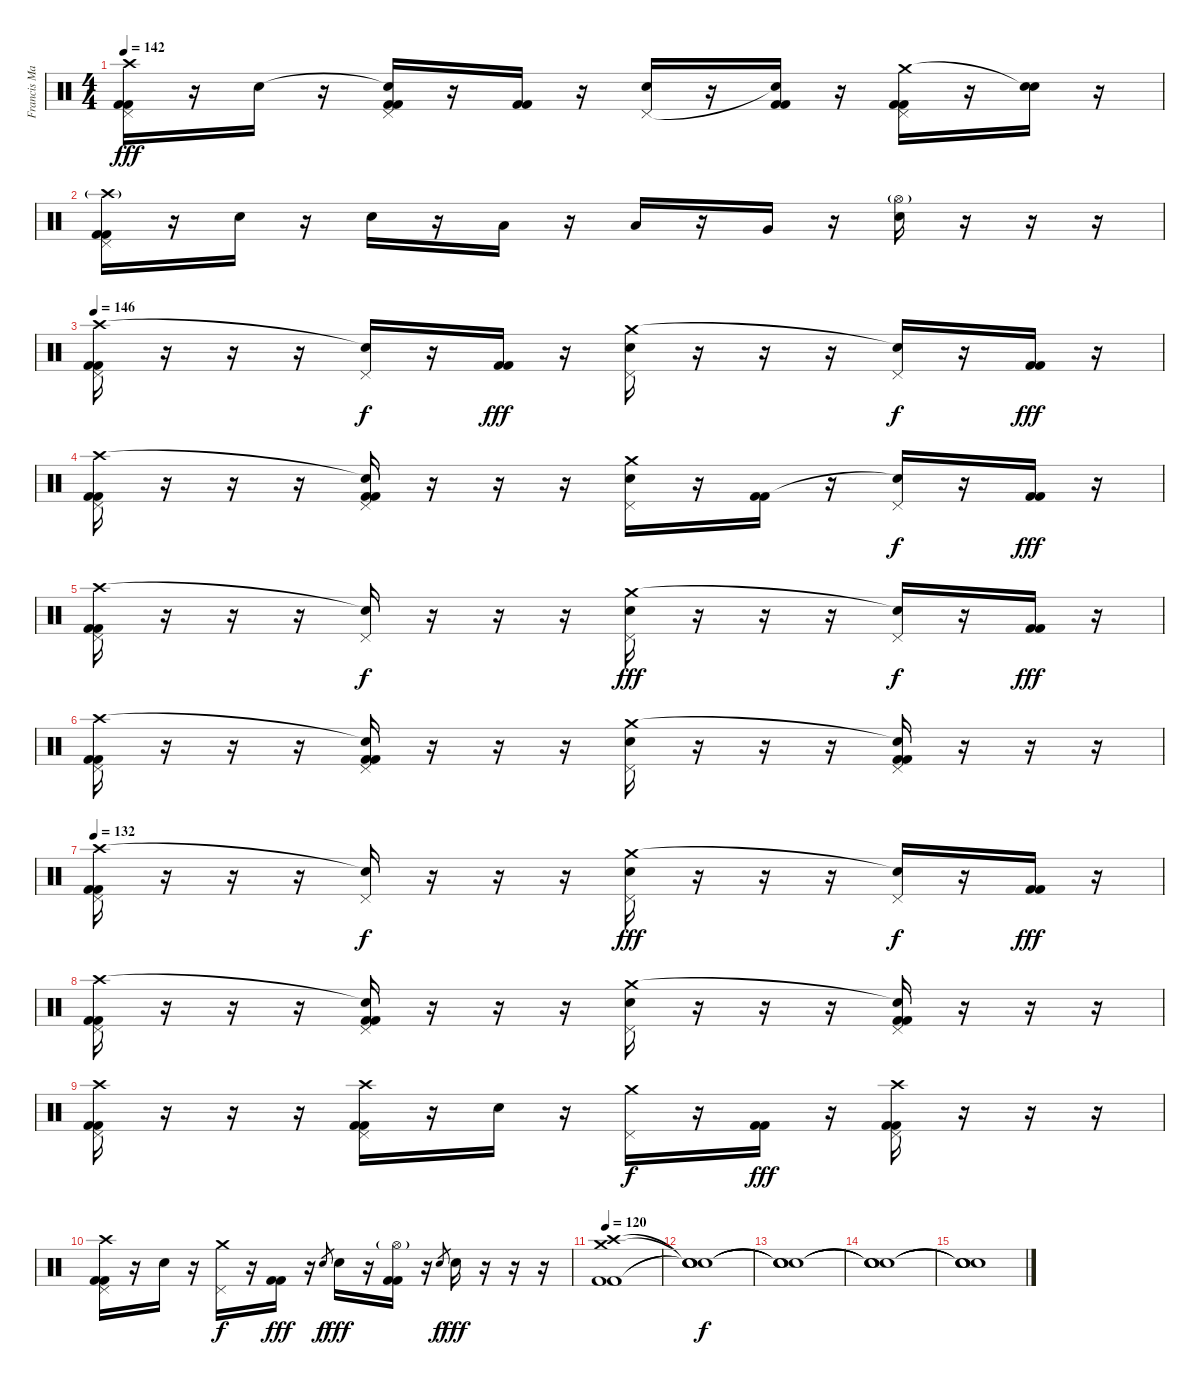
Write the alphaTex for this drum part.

\track ("Francis Mark" "Francis Ma") {instrument percussion}
\staff {score}
\articulation defaults
\ts (4 4)
\tempo 142
\clef neutral
\ks c
("Crash high (hit)" "Pedal Hi-Hat (hit)" "Kick (hit) 2" "Kick (hit) 2").16{dy fff} r.16 "Electric Snare (hit)".16 r.16 ("Snare (hit)"{t} "Pedal Hi-Hat (hit)" "Kick (hit) 2" "Kick (hit) 2").16 r.16 ("Kick (hit) 2" "Kick (hit) 2").16 r.16 ("Pedal Hi-Hat (hit)" "Electric Snare (hit)").16 r.16 ("Snare (hit)"{t} "Kick (hit) 2" "Kick (hit) 2").16 r.16 ("Crash medium (hit)" "Pedal Hi-Hat (hit)" "Kick (hit) 2" "Kick (hit) 2").16 r.16 ("Snare (hit)"{t} "Electric Snare (hit)").16 r.16 |
("Crash high (hit)"{g} "Pedal Hi-Hat (hit)" "Kick (hit) 2" "Kick (hit) 2").16 r.16 "Electric Snare (hit)".16 r.16 "Electric Snare (hit)".16 r.16 "Low Tom (hit)".16 r.16 "Low Tom (hit)".16 r.16 "Very Low Tom (hit)".16 r.16 ("Hi-Hat (open)"{g} "Electric Snare (hit)").16 r.16 r.16 r.16 |
\tempo 146
("Crash high (hit)" "Pedal Hi-Hat (hit)" "Kick (hit) 2" "Kick (hit) 2").16 r.16 r.16 r.16 ("Snare (hit)"{t} "Pedal Hi-Hat (hit)").16{dy f} r.16 ("Kick (hit) 2" "Kick (hit) 2").16{dy fff} r.16 ("Crash medium (hit)" "Pedal Hi-Hat (hit)" "Electric Snare (hit)").16 r.16 r.16 r.16 ("Snare (hit)"{t} "Pedal Hi-Hat (hit)").16{dy f} r.16 ("Kick (hit) 2" "Kick (hit) 2").16{dy fff} r.16 |
("Crash high (hit)" "Pedal Hi-Hat (hit)" "Kick (hit) 2" "Kick (hit) 2").16 r.16 r.16 r.16 ("Snare (hit)"{t} "Pedal Hi-Hat (hit)" "Kick (hit) 2" "Kick (hit) 2").16 r.16 r.16 r.16 ("Crash medium (hit)" "Pedal Hi-Hat (hit)" "Electric Snare (hit)").16 r.16 ("Kick (hit) 2" "Kick (hit) 2").16 r.16 ("Snare (hit)"{t} "Pedal Hi-Hat (hit)").16{dy f} r.16 ("Kick (hit) 2" "Kick (hit) 2").16{dy fff} r.16 |
("Crash high (hit)" "Pedal Hi-Hat (hit)" "Kick (hit) 2" "Kick (hit) 2").16 r.16 r.16 r.16 ("Snare (hit)"{t} "Pedal Hi-Hat (hit)").16{dy f} r.16 r.16 r.16 ("Crash medium (hit)" "Pedal Hi-Hat (hit)" "Electric Snare (hit)").16{dy fff} r.16 r.16 r.16 ("Snare (hit)"{t} "Pedal Hi-Hat (hit)").16{dy f} r.16 ("Kick (hit) 2" "Kick (hit) 2").16{dy fff} r.16 |
("Crash high (hit)" "Pedal Hi-Hat (hit)" "Kick (hit) 2" "Kick (hit) 2").16 r.16 r.16 r.16 ("Snare (hit)"{t} "Pedal Hi-Hat (hit)" "Kick (hit) 2" "Kick (hit) 2").16 r.16 r.16 r.16 ("Crash medium (hit)" "Pedal Hi-Hat (hit)" "Electric Snare (hit)").16 r.16 r.16 r.16 ("Snare (hit)"{t} "Pedal Hi-Hat (hit)" "Kick (hit) 2" "Kick (hit) 2").16 r.16 r.16 r.16 |
\tempo 132
("Crash high (hit)" "Pedal Hi-Hat (hit)" "Kick (hit) 2" "Kick (hit) 2").16 r.16 r.16 r.16 ("Snare (hit)"{t} "Pedal Hi-Hat (hit)").16{dy f} r.16 r.16 r.16 ("Crash medium (hit)" "Pedal Hi-Hat (hit)" "Electric Snare (hit)").16{dy fff} r.16 r.16 r.16 ("Snare (hit)"{t} "Pedal Hi-Hat (hit)").16{dy f} r.16 ("Kick (hit) 2" "Kick (hit) 2").16{dy fff} r.16 |
("Crash high (hit)" "Pedal Hi-Hat (hit)" "Kick (hit) 2" "Kick (hit) 2").16 r.16 r.16 r.16 ("Snare (hit)"{t} "Pedal Hi-Hat (hit)" "Kick (hit) 2" "Kick (hit) 2").16 r.16 r.16 r.16 ("Crash medium (hit)" "Pedal Hi-Hat (hit)" "Electric Snare (hit)").16 r.16 r.16 r.16 ("Snare (hit)"{t} "Pedal Hi-Hat (hit)" "Kick (hit) 2" "Kick (hit) 2").16 r.16 r.16 r.16 |
("Crash high (hit)" "Pedal Hi-Hat (hit)" "Kick (hit) 2" "Kick (hit) 2").16 r.16 r.16 r.16 ("Crash high (hit)" "Pedal Hi-Hat (hit)" "Kick (hit) 2" "Kick (hit) 2").16 r.16 "Electric Snare (hit)".16 r.16 ("Crash medium (hit)" "Pedal Hi-Hat (hit)").16{dy f} r.16 ("Kick (hit) 2" "Kick (hit) 2").16{dy fff} r.16 ("Crash high (hit)" "Pedal Hi-Hat (hit)" "Kick (hit) 2" "Kick (hit) 2").16 r.16 r.16 r.16 |
("Crash high (hit)" "Pedal Hi-Hat (hit)" "Kick (hit) 2" "Kick (hit) 2").16 r.16 "Electric Snare (hit)".16 r.16 ("Crash medium (hit)" "Pedal Hi-Hat (hit)").16{dy f} r.16 ("Kick (hit) 2" "Kick (hit) 2").16{dy fff} r.16 "Electric Snare (hit)".8{gr dy f} "Electric Snare (hit)".16{dy fff} r.16 ("Hi-Hat (open)"{g} "Kick (hit) 2" "Kick (hit) 2").16 r.16 "Electric Snare (hit)".8{gr dy f} "Electric Snare (hit)".16{dy fff} r.16 r.16 r.16 |
\tempo 120
("Crash medium (hit)" "Crash high (hit)" "Kick (hit) 2" "Kick (hit) 2").1 |
("Snare (hit)"{t} "Snare (hit)"{t} "Snare (hit)"{t} "Snare (hit)"{t}).1{dy f} |
("Snare (hit)"{t} "Snare (hit)"{t} "Snare (hit)"{t} "Snare (hit)"{t}).1 |
("Snare (hit)"{t} "Snare (hit)"{t} "Snare (hit)"{t} "Snare (hit)"{t}).1 |
("Snare (hit)"{t} "Snare (hit)"{t} "Snare (hit)"{t} "Snare (hit)"{t}).1
